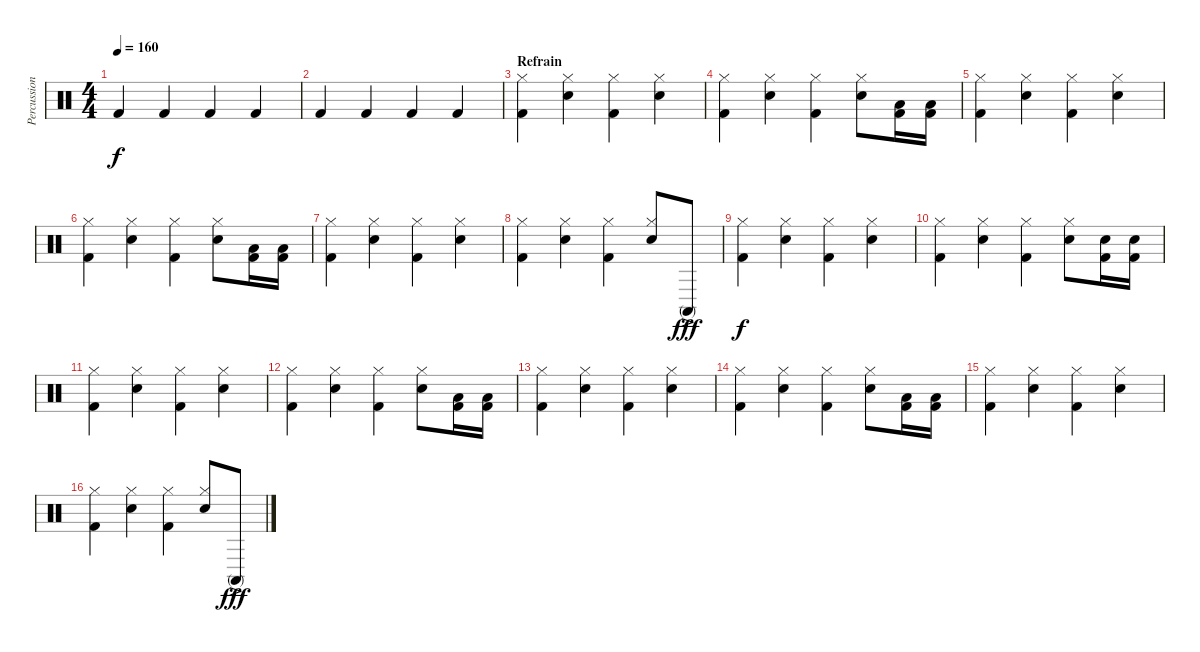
\track ("Percussions" "Percussion") {instrument percussion}
\staff {score}
\articulation defaults
\ts (4 4)
\tempo 160
\clef neutral
\ks c "Kick (hit) 2".4{dy f} "Kick (hit) 2".4 "Kick (hit) 2".4 "Kick (hit) 2".4
|
"Kick (hit) 2".4 "Kick (hit) 2".4 "Kick (hit) 2".4 "Kick (hit) 2".4 |
\section ("" "Refrain")
("Hi-Hat (closed)" "Kick (hit) 2").4 ("Hi-Hat (closed)" "Snare (hit) 2").4 ("Hi-Hat (closed)" "Kick (hit) 2").4 ("Hi-Hat (closed)" "Snare (hit) 2").4 |
("Hi-Hat (closed)" "Kick (hit) 2").4 ("Hi-Hat (closed)" "Snare (hit) 2").4 ("Hi-Hat (closed)" "Kick (hit) 2").4 ("Hi-Hat (closed)" "Snare (hit) 2").8 ("Low Tom (hit)" "Kick (hit) 2").16 ("Low Floor Tom (hit)" "Kick (hit) 2").16 |
("Hi-Hat (closed)" "Kick (hit) 2").4 ("Hi-Hat (closed)" "Snare (hit) 2").4 ("Hi-Hat (closed)" "Kick (hit) 2").4 ("Hi-Hat (closed)" "Snare (hit) 2").4 |
("Hi-Hat (closed)" "Kick (hit) 2").4 ("Hi-Hat (closed)" "Snare (hit) 2").4 ("Hi-Hat (closed)" "Kick (hit) 2").4 ("Hi-Hat (closed)" "Snare (hit) 2").8 ("Low Tom (hit)" "Kick (hit) 2").16 ("Low Floor Tom (hit)" "Kick (hit) 2").16 |
("Hi-Hat (closed)" "Kick (hit) 2").4 ("Hi-Hat (closed)" "Snare (hit) 2").4 ("Hi-Hat (closed)" "Kick (hit) 2").4 ("Hi-Hat (closed)" "Snare (hit) 2").4 |
("Hi-Hat (closed)" "Kick (hit) 2").4 ("Hi-Hat (closed)" "Snare (hit) 2").4 ("Hi-Hat (closed)" "Kick (hit) 2").4 ("Hi-Hat (closed)" "Snare (hit) 2").8 "Conga high (mute)"{ac}.8{dy fff} |
("Hi-Hat (closed)" "Kick (hit) 2").4{dy f} ("Hi-Hat (closed)" "Snare (hit) 2").4 ("Hi-Hat (closed)" "Kick (hit) 2").4 ("Hi-Hat (closed)" "Snare (hit) 2").4 |
("Hi-Hat (closed)" "Kick (hit) 2").4 ("Hi-Hat (closed)" "Snare (hit) 2").4 ("Hi-Hat (closed)" "Kick (hit) 2").4 ("Hi-Hat (closed)" "Snare (hit) 2").8 ("Snare (hit) 2" "Kick (hit) 2").16 ("Snare (hit) 2" "Kick (hit) 2").16 |
("Hi-Hat (closed)" "Kick (hit) 2").4 ("Hi-Hat (closed)" "Snare (hit) 2").4 ("Hi-Hat (closed)" "Kick (hit) 2").4 ("Hi-Hat (closed)" "Snare (hit) 2").4 |
("Hi-Hat (closed)" "Kick (hit) 2").4 ("Hi-Hat (closed)" "Snare (hit) 2").4 ("Hi-Hat (closed)" "Kick (hit) 2").4 ("Hi-Hat (closed)" "Snare (hit) 2").8 ("Low Tom (hit)" "Kick (hit) 2").16 ("Low Floor Tom (hit)" "Kick (hit) 2").16 |
("Hi-Hat (closed)" "Kick (hit) 2").4 ("Hi-Hat (closed)" "Snare (hit) 2").4 ("Hi-Hat (closed)" "Kick (hit) 2").4 ("Hi-Hat (closed)" "Snare (hit) 2").4 |
("Hi-Hat (closed)" "Kick (hit) 2").4 ("Hi-Hat (closed)" "Snare (hit) 2").4 ("Hi-Hat (closed)" "Kick (hit) 2").4 ("Hi-Hat (closed)" "Snare (hit) 2").8 ("Low Tom (hit)" "Kick (hit) 2").16 ("Low Floor Tom (hit)" "Kick (hit) 2").16 |
("Hi-Hat (closed)" "Kick (hit) 2").4 ("Hi-Hat (closed)" "Snare (hit) 2").4 ("Hi-Hat (closed)" "Kick (hit) 2").4 ("Hi-Hat (closed)" "Snare (hit) 2").4 |
("Hi-Hat (closed)" "Kick (hit) 2").4 ("Hi-Hat (closed)" "Snare (hit) 2").4 ("Hi-Hat (closed)" "Kick (hit) 2").4 ("Hi-Hat (closed)" "Snare (hit) 2").8 "Conga high (mute)"{ac}.8{dy fff}
